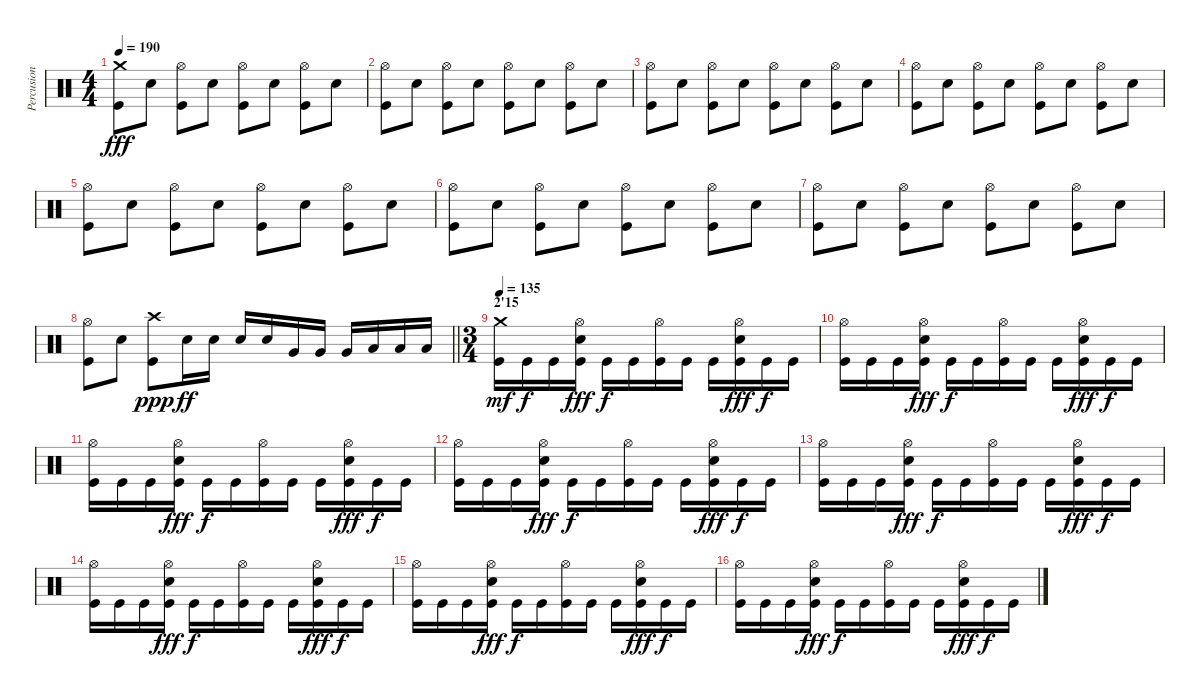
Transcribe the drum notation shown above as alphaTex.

\track ("Percusion" "Percusion") {instrument percussion}
\staff {score}
\articulation defaults
\ts (4 4)
\tempo 190
\clef neutral
\ks c
("Crash medium (hit)" "Kick (hit)").8{dy fff} "Electric Snare (hit)".8 ("Hi-Hat (open)" "Kick (hit)").8 "Electric Snare (hit)".8 ("Hi-Hat (open)" "Kick (hit)").8 "Electric Snare (hit)".8 ("Hi-Hat (open)" "Kick (hit)").8 "Electric Snare (hit)".8 |
("Hi-Hat (open)" "Kick (hit)").8 "Electric Snare (hit)".8 ("Hi-Hat (open)" "Kick (hit)").8 "Electric Snare (hit)".8 ("Hi-Hat (open)" "Kick (hit)").8 "Electric Snare (hit)".8 ("Hi-Hat (open)" "Kick (hit)").8 "Electric Snare (hit)".8 |
("Hi-Hat (open)" "Kick (hit)").8 "Electric Snare (hit)".8 ("Hi-Hat (open)" "Kick (hit)").8 "Electric Snare (hit)".8 ("Hi-Hat (open)" "Kick (hit)").8 "Electric Snare (hit)".8 ("Hi-Hat (open)" "Kick (hit)").8 "Electric Snare (hit)".8 |
("Hi-Hat (open)" "Kick (hit)").8 "Electric Snare (hit)".8 ("Hi-Hat (open)" "Kick (hit)").8 "Electric Snare (hit)".8 ("Hi-Hat (open)" "Kick (hit)").8 "Electric Snare (hit)".8 ("Hi-Hat (open)" "Kick (hit)").8 "Electric Snare (hit)".8 |
("Hi-Hat (open)" "Kick (hit)").8 "Electric Snare (hit)".8 ("Hi-Hat (open)" "Kick (hit)").8 "Electric Snare (hit)".8 ("Hi-Hat (open)" "Kick (hit)").8 "Electric Snare (hit)".8 ("Hi-Hat (open)" "Kick (hit)").8 "Electric Snare (hit)".8 |
("Hi-Hat (open)" "Kick (hit)").8 "Electric Snare (hit)".8 ("Hi-Hat (open)" "Kick (hit)").8 "Electric Snare (hit)".8 ("Hi-Hat (open)" "Kick (hit)").8 "Electric Snare (hit)".8 ("Hi-Hat (open)" "Kick (hit)").8 "Electric Snare (hit)".8 |
("Hi-Hat (open)" "Kick (hit)").8 "Electric Snare (hit)".8 ("Hi-Hat (open)" "Kick (hit)").8 "Electric Snare (hit)".8 ("Hi-Hat (open)" "Kick (hit)").8 "Electric Snare (hit)".8 ("Hi-Hat (open)" "Kick (hit)").8 "Electric Snare (hit)".8 |
\barLineRight lightlight
("Hi-Hat (open)" "Kick (hit)").8 "Electric Snare (hit)".8 ("Crash high (hit)" "Kick (hit)").8{dy ppp} "Electric Snare (hit)".16{dy ff} "Electric Snare (hit)".16 "Electric Snare (hit)".16 "Electric Snare (hit)".16 "Very Low Tom (hit)".16 "Very Low Tom (hit)".16 "Very Low Tom (hit)".16 "Low Floor Tom (hit)".16 "Low Floor Tom (hit)".16 "Low Floor Tom (hit)".16 |
\ts (3 4)
\section ("" "2'15")
\tempo 135
("Crash medium (hit)" "Kick (hit)").16{dy mf} "Kick (hit)".16{dy f} "Kick (hit)".16 ("Hi-Hat (open)" "Electric Snare (hit)" "Kick (hit)").16{dy fff} "Kick (hit)".16{dy f} "Kick (hit)".16 ("Hi-Hat (open)" "Kick (hit)").16 "Kick (hit)".16 "Kick (hit)".16 ("Hi-Hat (open)" "Electric Snare (hit)" "Kick (hit)").16{dy fff} "Kick (hit)".16{dy f} "Kick (hit)".16 |
("Hi-Hat (open)" "Kick (hit)").16 "Kick (hit)".16 "Kick (hit)".16 ("Hi-Hat (open)" "Electric Snare (hit)" "Kick (hit)").16{dy fff} "Kick (hit)".16{dy f} "Kick (hit)".16 ("Hi-Hat (open)" "Kick (hit)").16 "Kick (hit)".16 "Kick (hit)".16 ("Hi-Hat (open)" "Electric Snare (hit)" "Kick (hit)").16{dy fff} "Kick (hit)".16{dy f} "Kick (hit)".16 |
("Hi-Hat (open)" "Kick (hit)").16 "Kick (hit)".16 "Kick (hit)".16 ("Hi-Hat (open)" "Electric Snare (hit)" "Kick (hit)").16{dy fff} "Kick (hit)".16{dy f} "Kick (hit)".16 ("Hi-Hat (open)" "Kick (hit)").16 "Kick (hit)".16 "Kick (hit)".16 ("Hi-Hat (open)" "Electric Snare (hit)" "Kick (hit)").16{dy fff} "Kick (hit)".16{dy f} "Kick (hit)".16 |
("Hi-Hat (open)" "Kick (hit)").16 "Kick (hit)".16 "Kick (hit)".16 ("Hi-Hat (open)" "Electric Snare (hit)" "Kick (hit)").16{dy fff} "Kick (hit)".16{dy f} "Kick (hit)".16 ("Hi-Hat (open)" "Kick (hit)").16 "Kick (hit)".16 "Kick (hit)".16 ("Hi-Hat (open)" "Electric Snare (hit)" "Kick (hit)").16{dy fff} "Kick (hit)".16{dy f} "Kick (hit)".16 |
("Hi-Hat (open)" "Kick (hit)").16 "Kick (hit)".16 "Kick (hit)".16 ("Hi-Hat (open)" "Electric Snare (hit)" "Kick (hit)").16{dy fff} "Kick (hit)".16{dy f} "Kick (hit)".16 ("Hi-Hat (open)" "Kick (hit)").16 "Kick (hit)".16 "Kick (hit)".16 ("Hi-Hat (open)" "Electric Snare (hit)" "Kick (hit)").16{dy fff} "Kick (hit)".16{dy f} "Kick (hit)".16 |
("Hi-Hat (open)" "Kick (hit)").16 "Kick (hit)".16 "Kick (hit)".16 ("Hi-Hat (open)" "Electric Snare (hit)" "Kick (hit)").16{dy fff} "Kick (hit)".16{dy f} "Kick (hit)".16 ("Hi-Hat (open)" "Kick (hit)").16 "Kick (hit)".16 "Kick (hit)".16 ("Hi-Hat (open)" "Electric Snare (hit)" "Kick (hit)").16{dy fff} "Kick (hit)".16{dy f} "Kick (hit)".16 |
("Hi-Hat (open)" "Kick (hit)").16 "Kick (hit)".16 "Kick (hit)".16 ("Hi-Hat (open)" "Electric Snare (hit)" "Kick (hit)").16{dy fff} "Kick (hit)".16{dy f} "Kick (hit)".16 ("Hi-Hat (open)" "Kick (hit)").16 "Kick (hit)".16 "Kick (hit)".16 ("Hi-Hat (open)" "Electric Snare (hit)" "Kick (hit)").16{dy fff} "Kick (hit)".16{dy f} "Kick (hit)".16 |
("Hi-Hat (open)" "Kick (hit)").16 "Kick (hit)".16 "Kick (hit)".16 ("Hi-Hat (open)" "Electric Snare (hit)" "Kick (hit)").16{dy fff} "Kick (hit)".16{dy f} "Kick (hit)".16 ("Hi-Hat (open)" "Kick (hit)").16 "Kick (hit)".16 "Kick (hit)".16 ("Hi-Hat (open)" "Electric Snare (hit)" "Kick (hit)").16{dy fff} "Kick (hit)".16{dy f} "Kick (hit)".16
